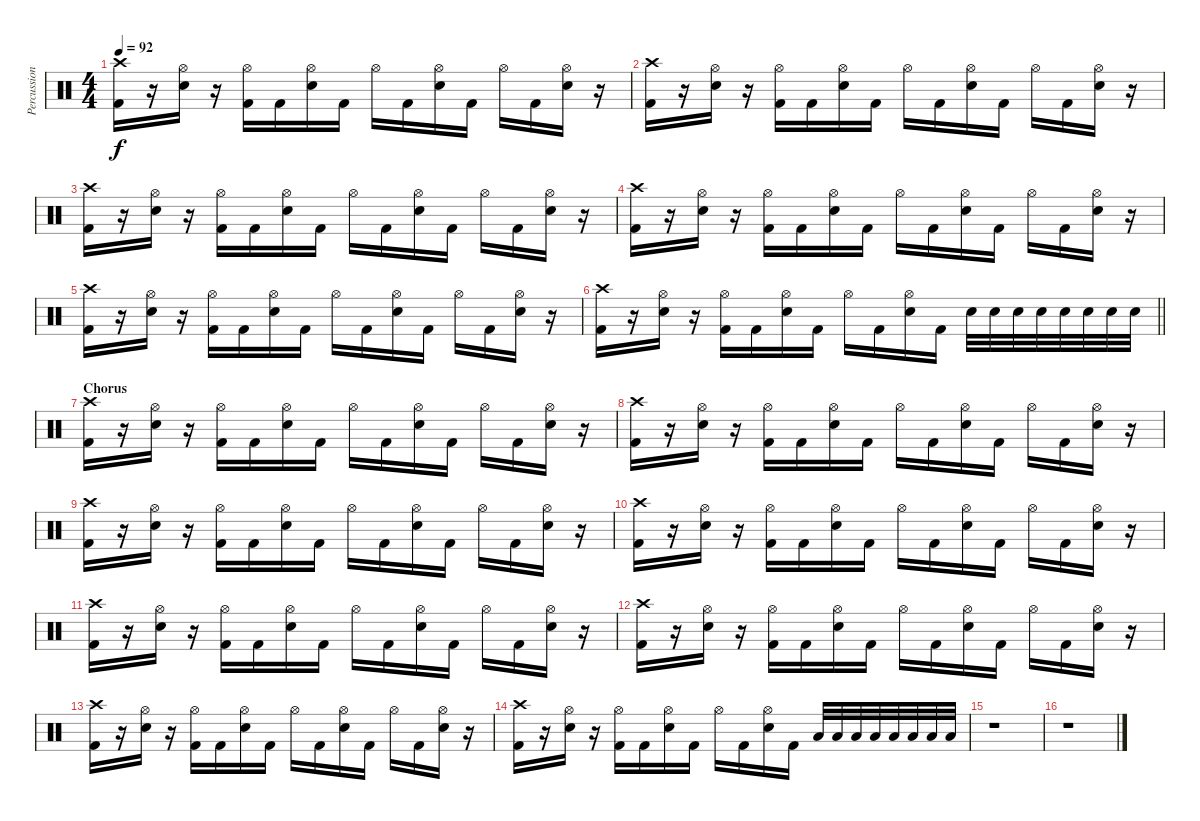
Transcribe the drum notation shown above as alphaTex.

\track ("Percussion" "Percussion") {instrument percussion}
\staff {score}
\articulation defaults
\ts (4 4)
\tempo 92
\clef neutral
\ks c
("Kick (hit) 2" "Crash high (hit)").16{dy f} r.16 ("Electric Snare (hit)" "Hi-Hat (open)").16 r.16 ("Kick (hit) 2" "Hi-Hat (open)").16 "Kick (hit) 2".16 ("Electric Snare (hit)" "Hi-Hat (open)").16 "Kick (hit) 2".16 "Hi-Hat (open)".16 "Kick (hit) 2".16 ("Electric Snare (hit)" "Hi-Hat (open)").16 "Kick (hit) 2".16 "Hi-Hat (open)".16 "Kick (hit) 2".16 ("Electric Snare (hit)" "Hi-Hat (open)").16 r.16 |
("Kick (hit) 2" "Crash high (hit)").16 r.16 ("Electric Snare (hit)" "Hi-Hat (open)").16 r.16 ("Kick (hit) 2" "Hi-Hat (open)").16 "Kick (hit) 2".16 ("Electric Snare (hit)" "Hi-Hat (open)").16 "Kick (hit) 2".16 "Hi-Hat (open)".16 "Kick (hit) 2".16 ("Electric Snare (hit)" "Hi-Hat (open)").16 "Kick (hit) 2".16 "Hi-Hat (open)".16 "Kick (hit) 2".16 ("Electric Snare (hit)" "Hi-Hat (open)").16 r.16 |
("Kick (hit) 2" "Crash high (hit)").16 r.16 ("Electric Snare (hit)" "Hi-Hat (open)").16 r.16 ("Kick (hit) 2" "Hi-Hat (open)").16 "Kick (hit) 2".16 ("Electric Snare (hit)" "Hi-Hat (open)").16 "Kick (hit) 2".16 "Hi-Hat (open)".16 "Kick (hit) 2".16 ("Electric Snare (hit)" "Hi-Hat (open)").16 "Kick (hit) 2".16 "Hi-Hat (open)".16 "Kick (hit) 2".16 ("Electric Snare (hit)" "Hi-Hat (open)").16 r.16 |
("Kick (hit) 2" "Crash high (hit)").16 r.16 ("Electric Snare (hit)" "Hi-Hat (open)").16 r.16 ("Kick (hit) 2" "Hi-Hat (open)").16 "Kick (hit) 2".16 ("Electric Snare (hit)" "Hi-Hat (open)").16 "Kick (hit) 2".16 "Hi-Hat (open)".16 "Kick (hit) 2".16 ("Electric Snare (hit)" "Hi-Hat (open)").16 "Kick (hit) 2".16 "Hi-Hat (open)".16 "Kick (hit) 2".16 ("Electric Snare (hit)" "Hi-Hat (open)").16 r.16 |
("Kick (hit) 2" "Crash high (hit)").16 r.16 ("Electric Snare (hit)" "Hi-Hat (open)").16 r.16 ("Kick (hit) 2" "Hi-Hat (open)").16 "Kick (hit) 2".16 ("Electric Snare (hit)" "Hi-Hat (open)").16 "Kick (hit) 2".16 "Hi-Hat (open)".16 "Kick (hit) 2".16 ("Electric Snare (hit)" "Hi-Hat (open)").16 "Kick (hit) 2".16 "Hi-Hat (open)".16 "Kick (hit) 2".16 ("Electric Snare (hit)" "Hi-Hat (open)").16 r.16 |
\barLineRight lightlight
("Kick (hit) 2" "Crash high (hit)").16 r.16 ("Electric Snare (hit)" "Hi-Hat (open)").16 r.16 ("Kick (hit) 2" "Hi-Hat (open)").16 "Kick (hit) 2".16 ("Electric Snare (hit)" "Hi-Hat (open)").16 "Kick (hit) 2".16 "Hi-Hat (open)".16 "Kick (hit) 2".16 ("Electric Snare (hit)" "Hi-Hat (open)").16 "Kick (hit) 2".16 "Electric Snare (hit)".32 "Electric Snare (hit)".32 "Electric Snare (hit)".32 "Electric Snare (hit)".32 "Electric Snare (hit)".32 "Electric Snare (hit)".32 "Electric Snare (hit)".32 "Electric Snare (hit)".32 |
\section ("" "Chorus")
("Kick (hit) 2" "Crash high (hit)").16 r.16 ("Electric Snare (hit)" "Hi-Hat (open)").16 r.16 ("Kick (hit) 2" "Hi-Hat (open)").16 "Kick (hit) 2".16 ("Electric Snare (hit)" "Hi-Hat (open)").16 "Kick (hit) 2".16 "Hi-Hat (open)".16 "Kick (hit) 2".16 ("Electric Snare (hit)" "Hi-Hat (open)").16 "Kick (hit) 2".16 "Hi-Hat (open)".16 "Kick (hit) 2".16 ("Electric Snare (hit)" "Hi-Hat (open)").16 r.16 |
("Kick (hit) 2" "Crash high (hit)").16 r.16 ("Electric Snare (hit)" "Hi-Hat (open)").16 r.16 ("Kick (hit) 2" "Hi-Hat (open)").16 "Kick (hit) 2".16 ("Electric Snare (hit)" "Hi-Hat (open)").16 "Kick (hit) 2".16 "Hi-Hat (open)".16 "Kick (hit) 2".16 ("Electric Snare (hit)" "Hi-Hat (open)").16 "Kick (hit) 2".16 "Hi-Hat (open)".16 "Kick (hit) 2".16 ("Electric Snare (hit)" "Hi-Hat (open)").16 r.16 |
("Kick (hit) 2" "Crash high (hit)").16 r.16 ("Electric Snare (hit)" "Hi-Hat (open)").16 r.16 ("Kick (hit) 2" "Hi-Hat (open)").16 "Kick (hit) 2".16 ("Electric Snare (hit)" "Hi-Hat (open)").16 "Kick (hit) 2".16 "Hi-Hat (open)".16 "Kick (hit) 2".16 ("Electric Snare (hit)" "Hi-Hat (open)").16 "Kick (hit) 2".16 "Hi-Hat (open)".16 "Kick (hit) 2".16 ("Electric Snare (hit)" "Hi-Hat (open)").16 r.16 |
("Kick (hit) 2" "Crash high (hit)").16 r.16 ("Electric Snare (hit)" "Hi-Hat (open)").16 r.16 ("Kick (hit) 2" "Hi-Hat (open)").16 "Kick (hit) 2".16 ("Electric Snare (hit)" "Hi-Hat (open)").16 "Kick (hit) 2".16 "Hi-Hat (open)".16 "Kick (hit) 2".16 ("Electric Snare (hit)" "Hi-Hat (open)").16 "Kick (hit) 2".16 "Hi-Hat (open)".16 "Kick (hit) 2".16 ("Electric Snare (hit)" "Hi-Hat (open)").16 r.16 |
("Kick (hit) 2" "Crash high (hit)").16 r.16 ("Electric Snare (hit)" "Hi-Hat (open)").16 r.16 ("Kick (hit) 2" "Hi-Hat (open)").16 "Kick (hit) 2".16 ("Electric Snare (hit)" "Hi-Hat (open)").16 "Kick (hit) 2".16 "Hi-Hat (open)".16 "Kick (hit) 2".16 ("Electric Snare (hit)" "Hi-Hat (open)").16 "Kick (hit) 2".16 "Hi-Hat (open)".16 "Kick (hit) 2".16 ("Electric Snare (hit)" "Hi-Hat (open)").16 r.16 |
("Kick (hit) 2" "Crash high (hit)").16 r.16 ("Electric Snare (hit)" "Hi-Hat (open)").16 r.16 ("Kick (hit) 2" "Hi-Hat (open)").16 "Kick (hit) 2".16 ("Electric Snare (hit)" "Hi-Hat (open)").16 "Kick (hit) 2".16 "Hi-Hat (open)".16 "Kick (hit) 2".16 ("Electric Snare (hit)" "Hi-Hat (open)").16 "Kick (hit) 2".16 "Hi-Hat (open)".16 "Kick (hit) 2".16 ("Electric Snare (hit)" "Hi-Hat (open)").16 r.16 |
("Kick (hit) 2" "Crash high (hit)").16 r.16 ("Electric Snare (hit)" "Hi-Hat (open)").16 r.16 ("Kick (hit) 2" "Hi-Hat (open)").16 "Kick (hit) 2".16 ("Electric Snare (hit)" "Hi-Hat (open)").16 "Kick (hit) 2".16 "Hi-Hat (open)".16 "Kick (hit) 2".16 ("Electric Snare (hit)" "Hi-Hat (open)").16 "Kick (hit) 2".16 "Hi-Hat (open)".16 "Kick (hit) 2".16 ("Electric Snare (hit)" "Hi-Hat (open)").16 r.16 |
("Kick (hit) 2" "Crash high (hit)").16 r.16 ("Electric Snare (hit)" "Hi-Hat (open)").16 r.16 ("Kick (hit) 2" "Hi-Hat (open)").16 "Kick (hit) 2".16 ("Electric Snare (hit)" "Hi-Hat (open)").16 "Kick (hit) 2".16 "Hi-Hat (open)".16 "Kick (hit) 2".16 ("Electric Snare (hit)" "Hi-Hat (open)").16 "Kick (hit) 2".16 "Low Tom (hit)".32 "Low Tom (hit)".32 "Low Tom (hit)".32 "Low Tom (hit)".32 "Low Floor Tom (hit)".32 "Low Floor Tom (hit)".32 "Low Floor Tom (hit)".32 "Low Floor Tom (hit)".32 |
r.1 |
r.1
